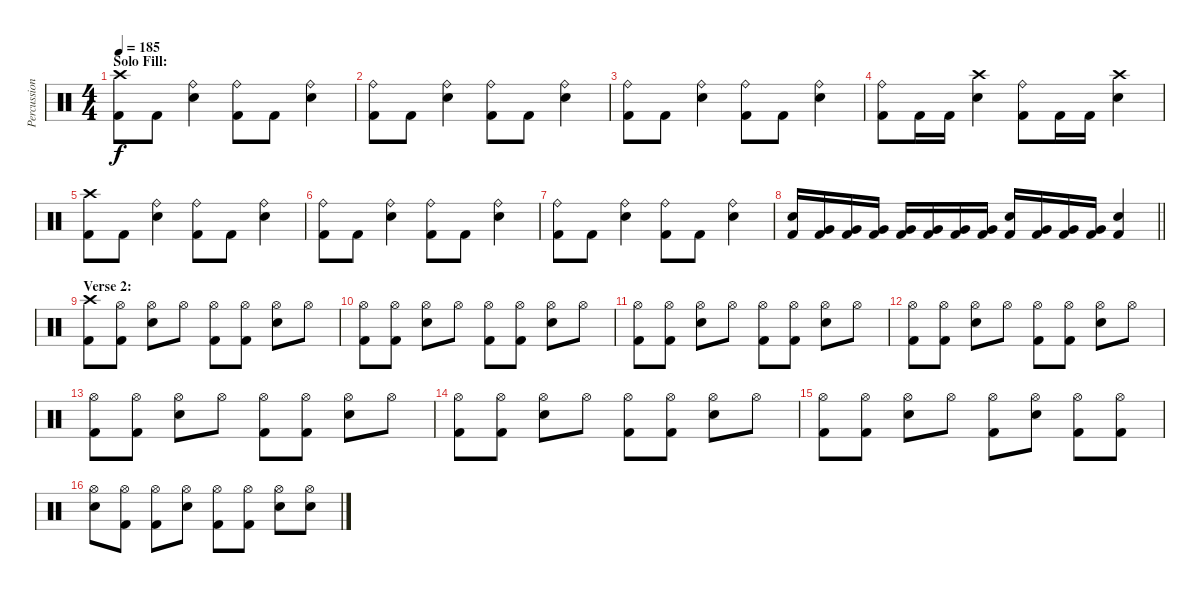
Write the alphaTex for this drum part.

\track ("Percussion" "Percussion") {instrument percussion}
\staff {score}
\articulation defaults
\ts (4 4)
\section ("" "Solo Fill:")
\tempo 185
\clef neutral
\ks c
("Crash high (hit)" "Kick (hit) 2").8{dy f} "Kick (hit) 2".8 ("Ride (bell)" "Snare (hit) 2").4 ("Ride (bell)" "Kick (hit) 2").8 "Kick (hit) 2".8 ("Ride (bell)" "Snare (hit) 2").4 |
("Ride (bell)" "Kick (hit) 2").8 "Kick (hit) 2".8 ("Ride (bell)" "Snare (hit) 2").4 ("Ride (bell)" "Kick (hit) 2").8 "Kick (hit) 2".8 ("Ride (bell)" "Snare (hit) 2").4 |
("Ride (bell)" "Kick (hit) 2").8 "Kick (hit) 2".8 ("Ride (bell)" "Snare (hit) 2").4 ("Ride (bell)" "Kick (hit) 2").8 "Kick (hit) 2".8 ("Ride (bell)" "Snare (hit) 2").4 |
("Ride (bell)" "Kick (hit) 2").8 "Kick (hit) 2".16 "Kick (hit) 2".16 ("Crash high (hit)" "Snare (hit) 2").4 ("Ride (bell)" "Kick (hit) 2").8 "Kick (hit) 2".16 "Kick (hit) 2".16 ("Crash high (hit)" "Snare (hit) 2").4 |
("Crash high (hit)" "Kick (hit) 2").8 "Kick (hit) 2".8 ("Ride (bell)" "Snare (hit) 2").4 ("Ride (bell)" "Kick (hit) 2").8 "Kick (hit) 2".8 ("Ride (bell)" "Snare (hit) 2").4 |
("Ride (bell)" "Kick (hit) 2").8 "Kick (hit) 2".8 ("Ride (bell)" "Snare (hit) 2").4 ("Ride (bell)" "Kick (hit) 2").8 "Kick (hit) 2".8 ("Ride (bell)" "Snare (hit) 2").4 |
("Ride (bell)" "Kick (hit) 2").8 "Kick (hit) 2".8 ("Ride (bell)" "Snare (hit) 2").4 ("Ride (bell)" "Kick (hit) 2").8 "Kick (hit) 2".8 ("Ride (bell)" "Snare (hit) 2").4 |
\barLineRight lightlight
("Snare (hit) 2" "Kick (hit) 2").16 ("Very Low Tom (hit)" "Kick (hit) 2").16 ("Very Low Tom (hit)" "Kick (hit) 2").16 ("Very Low Tom (hit)" "Kick (hit) 2").16 ("Very Low Tom (hit)" "Kick (hit) 2").16 ("Very Low Tom (hit)" "Kick (hit) 2").16 ("Very Low Tom (hit)" "Kick (hit) 2").16 ("Very Low Tom (hit)" "Kick (hit) 2").16 ("Snare (hit) 2" "Kick (hit) 2").16 ("Very Low Tom (hit)" "Kick (hit) 2").16 ("Very Low Tom (hit)" "Kick (hit) 2").16 ("Very Low Tom (hit)" "Kick (hit) 2").16 ("Snare (hit) 2" "Kick (hit) 2").4 |
\section ("" "Verse 2:")
("Crash high (hit)" "Kick (hit) 2").8 ("Hi-Hat (open)" "Kick (hit) 2").8 ("Hi-Hat (open)" "Snare (hit) 2").8 "Hi-Hat (open)".8 ("Hi-Hat (open)" "Kick (hit) 2").8 ("Hi-Hat (open)" "Kick (hit) 2").8 ("Hi-Hat (open)" "Snare (hit) 2").8 "Hi-Hat (open)".8 |
("Hi-Hat (open)" "Kick (hit) 2").8 ("Hi-Hat (open)" "Kick (hit) 2").8 ("Hi-Hat (open)" "Snare (hit) 2").8 "Hi-Hat (open)".8 ("Hi-Hat (open)" "Kick (hit) 2").8 ("Hi-Hat (open)" "Kick (hit) 2").8 ("Hi-Hat (open)" "Snare (hit) 2").8 "Hi-Hat (open)".8 |
("Hi-Hat (open)" "Kick (hit) 2").8 ("Hi-Hat (open)" "Kick (hit) 2").8 ("Hi-Hat (open)" "Snare (hit) 2").8 "Hi-Hat (open)".8 ("Hi-Hat (open)" "Kick (hit) 2").8 ("Hi-Hat (open)" "Kick (hit) 2").8 ("Hi-Hat (open)" "Snare (hit) 2").8 "Hi-Hat (open)".8 |
("Hi-Hat (open)" "Kick (hit) 2").8 ("Hi-Hat (open)" "Kick (hit) 2").8 ("Hi-Hat (open)" "Snare (hit) 2").8 "Hi-Hat (open)".8 ("Hi-Hat (open)" "Kick (hit) 2").8 ("Hi-Hat (open)" "Kick (hit) 2").8 ("Hi-Hat (open)" "Snare (hit) 2").8 "Hi-Hat (open)".8 |
("Hi-Hat (open)" "Kick (hit) 2").8 ("Hi-Hat (open)" "Kick (hit) 2").8 ("Hi-Hat (open)" "Snare (hit) 2").8 "Hi-Hat (open)".8 ("Hi-Hat (open)" "Kick (hit) 2").8 ("Hi-Hat (open)" "Kick (hit) 2").8 ("Hi-Hat (open)" "Snare (hit) 2").8 "Hi-Hat (open)".8 |
("Hi-Hat (open)" "Kick (hit) 2").8 ("Hi-Hat (open)" "Kick (hit) 2").8 ("Hi-Hat (open)" "Snare (hit) 2").8 "Hi-Hat (open)".8 ("Hi-Hat (open)" "Kick (hit) 2").8 ("Hi-Hat (open)" "Kick (hit) 2").8 ("Hi-Hat (open)" "Snare (hit) 2").8 "Hi-Hat (open)".8 |
("Hi-Hat (open)" "Kick (hit) 2").8 ("Hi-Hat (open)" "Kick (hit) 2").8 ("Hi-Hat (open)" "Snare (hit) 2").8 "Hi-Hat (open)".8 ("Hi-Hat (open)" "Kick (hit) 2").8 ("Hi-Hat (open)" "Snare (hit) 2").8 ("Hi-Hat (open)" "Kick (hit) 2").8 ("Hi-Hat (open)" "Kick (hit) 2").8 |
("Hi-Hat (open)" "Snare (hit) 2").8 ("Hi-Hat (open)" "Kick (hit) 2").8 ("Hi-Hat (open)" "Kick (hit) 2").8 ("Hi-Hat (open)" "Snare (hit) 2").8 ("Hi-Hat (open)" "Kick (hit) 2").8 ("Hi-Hat (open)" "Kick (hit) 2").8 ("Hi-Hat (open)" "Snare (hit) 2").8 ("Hi-Hat (open)" "Snare (hit) 2").8
